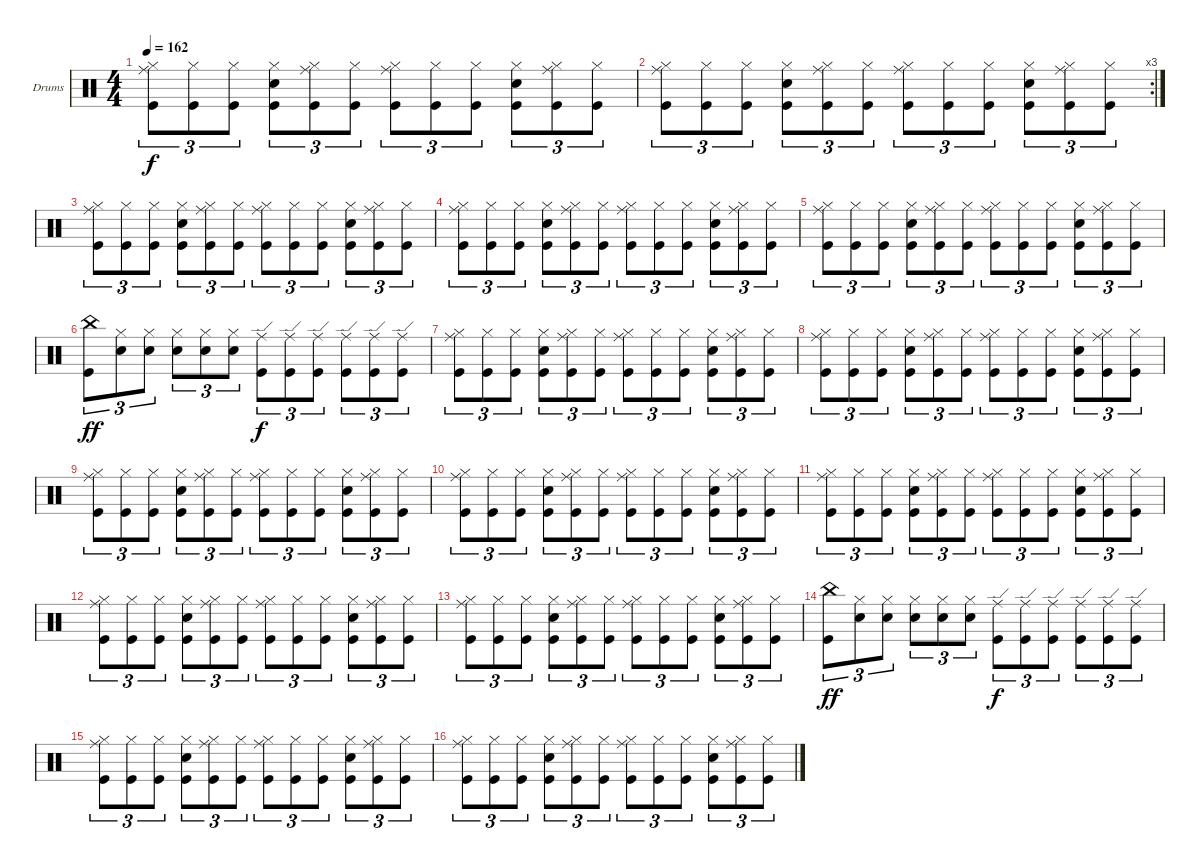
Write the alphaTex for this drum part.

\bracketExtendMode groupsimilarinstruments
\firstSystemTrackNameOrientation horizontal
\otherSystemsTrackNameOrientation horizontal
\track ("Drumkit" "Drums") {instrument percussion}
\staff {score}
\articulation defaults
\ts (4 4)
\tempo 162
\clef neutral
\ks c
("Kick (hit)" "Ride (middle)" "Hi-Hat (closed)").8{tu (3 2) dy f} ("Kick (hit)" "Hi-Hat (closed)").8{tu (3 2)} ("Kick (hit)" "Hi-Hat (closed)").8{tu (3 2)} ("Kick (hit)" "Snare (hit) 2" "Hi-Hat (closed)").8{tu (3 2)} ("Kick (hit)" "Ride (middle)" "Hi-Hat (closed)").8{tu (3 2)} ("Kick (hit)" "Hi-Hat (closed)").8{tu (3 2)} ("Kick (hit)" "Ride (middle)" "Hi-Hat (closed)").8{tu (3 2)} ("Kick (hit)" "Hi-Hat (closed)").8{tu (3 2)} ("Kick (hit)" "Hi-Hat (closed)").8{tu (3 2)} ("Kick (hit)" "Snare (hit) 2" "Hi-Hat (closed)").8{tu (3 2)} ("Kick (hit)" "Ride (middle)" "Hi-Hat (closed)").8{tu (3 2)} ("Kick (hit)" "Hi-Hat (closed)").8{tu (3 2)} |
\rc 3
("Kick (hit)" "Ride (middle)" "Hi-Hat (closed)").8{tu (3 2)} ("Kick (hit)" "Hi-Hat (closed)").8{tu (3 2)} ("Kick (hit)" "Hi-Hat (closed)").8{tu (3 2)} ("Kick (hit)" "Snare (hit) 2" "Hi-Hat (closed)").8{tu (3 2)} ("Kick (hit)" "Ride (middle)" "Hi-Hat (closed)").8{tu (3 2)} ("Kick (hit)" "Hi-Hat (closed)").8{tu (3 2)} ("Kick (hit)" "Ride (middle)" "Hi-Hat (closed)").8{tu (3 2)} ("Kick (hit)" "Hi-Hat (closed)").8{tu (3 2)} ("Kick (hit)" "Hi-Hat (closed)").8{tu (3 2)} ("Kick (hit)" "Snare (hit) 2" "Hi-Hat (closed)").8{tu (3 2)} ("Kick (hit)" "Ride (middle)" "Hi-Hat (closed)").8{tu (3 2)} ("Kick (hit)" "Hi-Hat (closed)").8{tu (3 2)} |
("Kick (hit)" "Ride (middle)" "Hi-Hat (closed)").8{tu (3 2)} ("Kick (hit)" "Hi-Hat (closed)").8{tu (3 2)} ("Kick (hit)" "Hi-Hat (closed)").8{tu (3 2)} ("Kick (hit)" "Snare (hit) 2" "Hi-Hat (closed)").8{tu (3 2)} ("Kick (hit)" "Ride (middle)" "Hi-Hat (closed)").8{tu (3 2)} ("Kick (hit)" "Hi-Hat (closed)").8{tu (3 2)} ("Kick (hit)" "Ride (middle)" "Hi-Hat (closed)").8{tu (3 2)} ("Kick (hit)" "Hi-Hat (closed)").8{tu (3 2)} ("Kick (hit)" "Hi-Hat (closed)").8{tu (3 2)} ("Kick (hit)" "Snare (hit) 2" "Hi-Hat (closed)").8{tu (3 2)} ("Kick (hit)" "Ride (middle)" "Hi-Hat (closed)").8{tu (3 2)} ("Kick (hit)" "Hi-Hat (closed)").8{tu (3 2)} |
("Kick (hit)" "Ride (middle)" "Hi-Hat (closed)").8{tu (3 2)} ("Kick (hit)" "Hi-Hat (closed)").8{tu (3 2)} ("Kick (hit)" "Hi-Hat (closed)").8{tu (3 2)} ("Kick (hit)" "Snare (hit) 2" "Hi-Hat (closed)").8{tu (3 2)} ("Kick (hit)" "Ride (middle)" "Hi-Hat (closed)").8{tu (3 2)} ("Kick (hit)" "Hi-Hat (closed)").8{tu (3 2)} ("Kick (hit)" "Ride (middle)" "Hi-Hat (closed)").8{tu (3 2)} ("Kick (hit)" "Hi-Hat (closed)").8{tu (3 2)} ("Kick (hit)" "Hi-Hat (closed)").8{tu (3 2)} ("Kick (hit)" "Snare (hit) 2" "Hi-Hat (closed)").8{tu (3 2)} ("Kick (hit)" "Ride (middle)" "Hi-Hat (closed)").8{tu (3 2)} ("Kick (hit)" "Hi-Hat (closed)").8{tu (3 2)} |
("Kick (hit)" "Ride (middle)" "Hi-Hat (closed)").8{tu (3 2)} ("Kick (hit)" "Hi-Hat (closed)").8{tu (3 2)} ("Kick (hit)" "Hi-Hat (closed)").8{tu (3 2)} ("Kick (hit)" "Snare (hit) 2" "Hi-Hat (closed)").8{tu (3 2)} ("Kick (hit)" "Ride (middle)" "Hi-Hat (closed)").8{tu (3 2)} ("Kick (hit)" "Hi-Hat (closed)").8{tu (3 2)} ("Kick (hit)" "Ride (middle)" "Hi-Hat (closed)").8{tu (3 2)} ("Kick (hit)" "Hi-Hat (closed)").8{tu (3 2)} ("Kick (hit)" "Hi-Hat (closed)").8{tu (3 2)} ("Kick (hit)" "Snare (hit) 2" "Hi-Hat (closed)").8{tu (3 2)} ("Kick (hit)" "Ride (middle)" "Hi-Hat (closed)").8{tu (3 2)} ("Kick (hit)" "Hi-Hat (closed)").8{tu (3 2)} |
("Kick (hit)" "China (hit)").8{tu (3 2) dy ff} ("Snare (hit) 2" "Hi-Hat (closed)").8{tu (3 2)} ("Snare (hit) 2" "Hi-Hat (closed)").8{tu (3 2)} ("Snare (hit) 2" "Hi-Hat (closed)").8{tu (3 2)} ("Snare (hit) 2" "Hi-Hat (closed)").8{tu (3 2)} ("Snare (hit) 2" "Hi-Hat (closed)").8{tu (3 2)} ("Kick (hit)" "Ride (edge)").8{tu (3 2) dy f} ("Kick (hit)" "Ride (edge)").8{tu (3 2)} ("Kick (hit)" "Ride (edge)").8{tu (3 2)} ("Kick (hit)" "Ride (edge)").8{tu (3 2)} ("Kick (hit)" "Ride (edge)").8{tu (3 2)} ("Kick (hit)" "Ride (edge)").8{tu (3 2)} |
("Kick (hit)" "Ride (middle)" "Hi-Hat (closed)").8{tu (3 2)} ("Kick (hit)" "Hi-Hat (closed)").8{tu (3 2)} ("Kick (hit)" "Hi-Hat (closed)").8{tu (3 2)} ("Kick (hit)" "Snare (hit) 2" "Hi-Hat (closed)").8{tu (3 2)} ("Kick (hit)" "Ride (middle)" "Hi-Hat (closed)").8{tu (3 2)} ("Kick (hit)" "Hi-Hat (closed)").8{tu (3 2)} ("Kick (hit)" "Ride (middle)" "Hi-Hat (closed)").8{tu (3 2)} ("Kick (hit)" "Hi-Hat (closed)").8{tu (3 2)} ("Kick (hit)" "Hi-Hat (closed)").8{tu (3 2)} ("Kick (hit)" "Snare (hit) 2" "Hi-Hat (closed)").8{tu (3 2)} ("Kick (hit)" "Ride (middle)" "Hi-Hat (closed)").8{tu (3 2)} ("Kick (hit)" "Hi-Hat (closed)").8{tu (3 2)} |
("Kick (hit)" "Ride (middle)" "Hi-Hat (closed)").8{tu (3 2)} ("Kick (hit)" "Hi-Hat (closed)").8{tu (3 2)} ("Kick (hit)" "Hi-Hat (closed)").8{tu (3 2)} ("Kick (hit)" "Snare (hit) 2" "Hi-Hat (closed)").8{tu (3 2)} ("Kick (hit)" "Ride (middle)" "Hi-Hat (closed)").8{tu (3 2)} ("Kick (hit)" "Hi-Hat (closed)").8{tu (3 2)} ("Kick (hit)" "Ride (middle)" "Hi-Hat (closed)").8{tu (3 2)} ("Kick (hit)" "Hi-Hat (closed)").8{tu (3 2)} ("Kick (hit)" "Hi-Hat (closed)").8{tu (3 2)} ("Kick (hit)" "Snare (hit) 2" "Hi-Hat (closed)").8{tu (3 2)} ("Kick (hit)" "Ride (middle)" "Hi-Hat (closed)").8{tu (3 2)} ("Kick (hit)" "Hi-Hat (closed)").8{tu (3 2)} |
("Kick (hit)" "Ride (middle)" "Hi-Hat (closed)").8{tu (3 2)} ("Kick (hit)" "Hi-Hat (closed)").8{tu (3 2)} ("Kick (hit)" "Hi-Hat (closed)").8{tu (3 2)} ("Kick (hit)" "Snare (hit) 2" "Hi-Hat (closed)").8{tu (3 2)} ("Kick (hit)" "Ride (middle)" "Hi-Hat (closed)").8{tu (3 2)} ("Kick (hit)" "Hi-Hat (closed)").8{tu (3 2)} ("Kick (hit)" "Ride (middle)" "Hi-Hat (closed)").8{tu (3 2)} ("Kick (hit)" "Hi-Hat (closed)").8{tu (3 2)} ("Kick (hit)" "Hi-Hat (closed)").8{tu (3 2)} ("Kick (hit)" "Snare (hit) 2" "Hi-Hat (closed)").8{tu (3 2)} ("Kick (hit)" "Ride (middle)" "Hi-Hat (closed)").8{tu (3 2)} ("Kick (hit)" "Hi-Hat (closed)").8{tu (3 2)} |
("Kick (hit)" "Ride (middle)" "Hi-Hat (closed)").8{tu (3 2)} ("Kick (hit)" "Hi-Hat (closed)").8{tu (3 2)} ("Kick (hit)" "Hi-Hat (closed)").8{tu (3 2)} ("Kick (hit)" "Snare (hit) 2" "Hi-Hat (closed)").8{tu (3 2)} ("Kick (hit)" "Ride (middle)" "Hi-Hat (closed)").8{tu (3 2)} ("Kick (hit)" "Hi-Hat (closed)").8{tu (3 2)} ("Kick (hit)" "Ride (middle)" "Hi-Hat (closed)").8{tu (3 2)} ("Kick (hit)" "Hi-Hat (closed)").8{tu (3 2)} ("Kick (hit)" "Hi-Hat (closed)").8{tu (3 2)} ("Kick (hit)" "Snare (hit) 2" "Hi-Hat (closed)").8{tu (3 2)} ("Kick (hit)" "Ride (middle)" "Hi-Hat (closed)").8{tu (3 2)} ("Kick (hit)" "Hi-Hat (closed)").8{tu (3 2)} |
("Kick (hit)" "Ride (middle)" "Hi-Hat (closed)").8{tu (3 2)} ("Kick (hit)" "Hi-Hat (closed)").8{tu (3 2)} ("Kick (hit)" "Hi-Hat (closed)").8{tu (3 2)} ("Kick (hit)" "Snare (hit) 2" "Hi-Hat (closed)").8{tu (3 2)} ("Kick (hit)" "Ride (middle)" "Hi-Hat (closed)").8{tu (3 2)} ("Kick (hit)" "Hi-Hat (closed)").8{tu (3 2)} ("Kick (hit)" "Ride (middle)" "Hi-Hat (closed)").8{tu (3 2)} ("Kick (hit)" "Hi-Hat (closed)").8{tu (3 2)} ("Kick (hit)" "Hi-Hat (closed)").8{tu (3 2)} ("Kick (hit)" "Snare (hit) 2" "Hi-Hat (closed)").8{tu (3 2)} ("Kick (hit)" "Ride (middle)" "Hi-Hat (closed)").8{tu (3 2)} ("Kick (hit)" "Hi-Hat (closed)").8{tu (3 2)} |
("Kick (hit)" "Ride (middle)" "Hi-Hat (closed)").8{tu (3 2)} ("Kick (hit)" "Hi-Hat (closed)").8{tu (3 2)} ("Kick (hit)" "Hi-Hat (closed)").8{tu (3 2)} ("Kick (hit)" "Snare (hit) 2" "Hi-Hat (closed)").8{tu (3 2)} ("Kick (hit)" "Ride (middle)" "Hi-Hat (closed)").8{tu (3 2)} ("Kick (hit)" "Hi-Hat (closed)").8{tu (3 2)} ("Kick (hit)" "Ride (middle)" "Hi-Hat (closed)").8{tu (3 2)} ("Kick (hit)" "Hi-Hat (closed)").8{tu (3 2)} ("Kick (hit)" "Hi-Hat (closed)").8{tu (3 2)} ("Kick (hit)" "Snare (hit) 2" "Hi-Hat (closed)").8{tu (3 2)} ("Kick (hit)" "Ride (middle)" "Hi-Hat (closed)").8{tu (3 2)} ("Kick (hit)" "Hi-Hat (closed)").8{tu (3 2)} |
("Kick (hit)" "Ride (middle)" "Hi-Hat (closed)").8{tu (3 2)} ("Kick (hit)" "Hi-Hat (closed)").8{tu (3 2)} ("Kick (hit)" "Hi-Hat (closed)").8{tu (3 2)} ("Kick (hit)" "Snare (hit) 2" "Hi-Hat (closed)").8{tu (3 2)} ("Kick (hit)" "Ride (middle)" "Hi-Hat (closed)").8{tu (3 2)} ("Kick (hit)" "Hi-Hat (closed)").8{tu (3 2)} ("Kick (hit)" "Ride (middle)" "Hi-Hat (closed)").8{tu (3 2)} ("Kick (hit)" "Hi-Hat (closed)").8{tu (3 2)} ("Kick (hit)" "Hi-Hat (closed)").8{tu (3 2)} ("Kick (hit)" "Snare (hit) 2" "Hi-Hat (closed)").8{tu (3 2)} ("Kick (hit)" "Ride (middle)" "Hi-Hat (closed)").8{tu (3 2)} ("Kick (hit)" "Hi-Hat (closed)").8{tu (3 2)} |
("Kick (hit)" "China (hit)").8{tu (3 2) dy ff} ("Snare (hit) 2" "Hi-Hat (closed)").8{tu (3 2)} ("Snare (hit) 2" "Hi-Hat (closed)").8{tu (3 2)} ("Snare (hit) 2" "Hi-Hat (closed)").8{tu (3 2)} ("Snare (hit) 2" "Hi-Hat (closed)").8{tu (3 2)} ("Snare (hit) 2" "Hi-Hat (closed)").8{tu (3 2)} ("Kick (hit)" "Ride (edge)").8{tu (3 2) dy f} ("Kick (hit)" "Ride (edge)").8{tu (3 2)} ("Kick (hit)" "Ride (edge)").8{tu (3 2)} ("Kick (hit)" "Ride (edge)").8{tu (3 2)} ("Kick (hit)" "Ride (edge)").8{tu (3 2)} ("Kick (hit)" "Ride (edge)").8{tu (3 2)} |
("Kick (hit)" "Ride (middle)" "Hi-Hat (closed)").8{tu (3 2)} ("Kick (hit)" "Hi-Hat (closed)").8{tu (3 2)} ("Kick (hit)" "Hi-Hat (closed)").8{tu (3 2)} ("Kick (hit)" "Snare (hit) 2" "Hi-Hat (closed)").8{tu (3 2)} ("Kick (hit)" "Ride (middle)" "Hi-Hat (closed)").8{tu (3 2)} ("Kick (hit)" "Hi-Hat (closed)").8{tu (3 2)} ("Kick (hit)" "Ride (middle)" "Hi-Hat (closed)").8{tu (3 2)} ("Kick (hit)" "Hi-Hat (closed)").8{tu (3 2)} ("Kick (hit)" "Hi-Hat (closed)").8{tu (3 2)} ("Kick (hit)" "Snare (hit) 2" "Hi-Hat (closed)").8{tu (3 2)} ("Kick (hit)" "Ride (middle)" "Hi-Hat (closed)").8{tu (3 2)} ("Kick (hit)" "Hi-Hat (closed)").8{tu (3 2)} |
("Kick (hit)" "Ride (middle)" "Hi-Hat (closed)").8{tu (3 2)} ("Kick (hit)" "Hi-Hat (closed)").8{tu (3 2)} ("Kick (hit)" "Hi-Hat (closed)").8{tu (3 2)} ("Kick (hit)" "Snare (hit) 2" "Hi-Hat (closed)").8{tu (3 2)} ("Kick (hit)" "Ride (middle)" "Hi-Hat (closed)").8{tu (3 2)} ("Kick (hit)" "Hi-Hat (closed)").8{tu (3 2)} ("Kick (hit)" "Ride (middle)" "Hi-Hat (closed)").8{tu (3 2)} ("Kick (hit)" "Hi-Hat (closed)").8{tu (3 2)} ("Kick (hit)" "Hi-Hat (closed)").8{tu (3 2)} ("Kick (hit)" "Snare (hit) 2" "Hi-Hat (closed)").8{tu (3 2)} ("Kick (hit)" "Ride (middle)" "Hi-Hat (closed)").8{tu (3 2)} ("Kick (hit)" "Hi-Hat (closed)").8{tu (3 2)}
